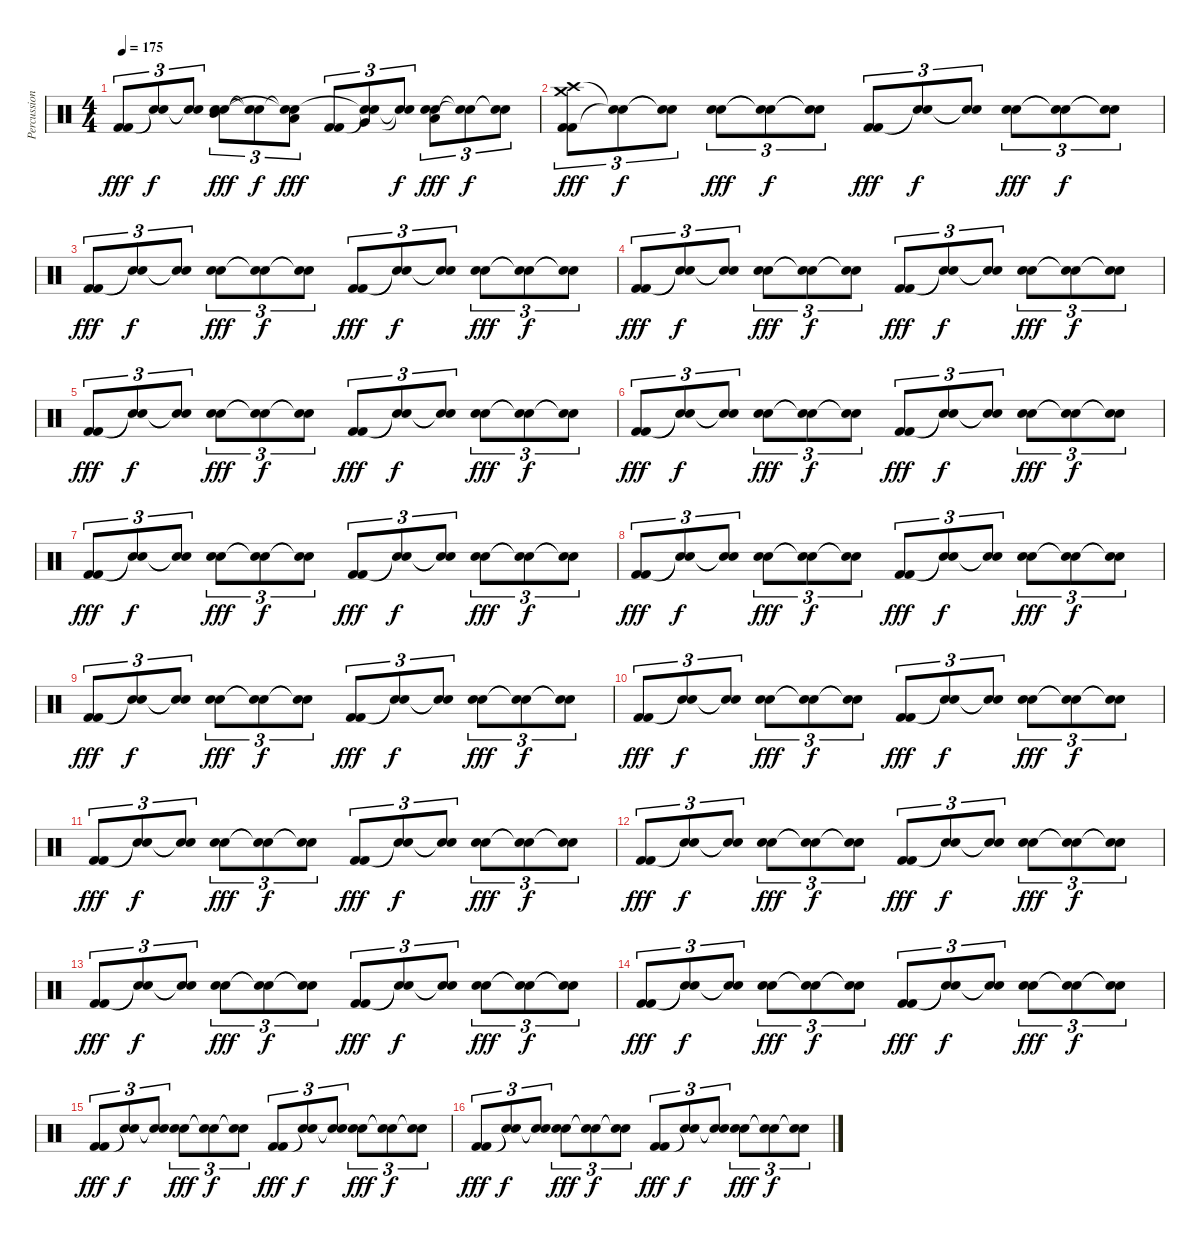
\track ("Percussion" "Percussion") {instrument percussion}
\staff {score}
\articulation defaults
\ts (4 4)
\tempo 175
\clef neutral
\ks c
("Kick (hit) 2" "Kick (hit) 2").8{tu (3 2) dy fff} ("Snare (hit)"{t} "Snare (hit)"{t}).8{tu (3 2) dy f} ("Snare (hit)"{t} "Snare (hit)"{t}).8{tu (3 2)} ("Electric Snare (hit)" "Mid Tom (hit)" "Electric Snare (hit)").8{tu (3 2) dy fff} ("Snare (hit)"{t} "Snare (hit)"{t}).8{tu (3 2) dy f} ("Snare (hit)"{t} "Low Tom (hit)" "Snare (hit)"{t}).8{tu (3 2) dy fff} ("Kick (hit) 2" "Kick (hit) 2").8{tu (3 2)} ("Snare (hit)"{t} "Very Low Tom (hit)" "Snare (hit)"{t}).8{tu (3 2)} ("Snare (hit)"{t} "Snare (hit)"{t}).8{tu (3 2) dy f} ("Electric Snare (hit)" "Low Floor Tom (hit)" "Electric Snare (hit)").8{tu (3 2) dy fff} ("Snare (hit)"{t} "Snare (hit)"{t}).8{tu (3 2) dy f} ("Snare (hit)"{t} "Snare (hit)"{t}).8{tu (3 2)} |
("Kick (hit) 2" "Crash high (hit)" "Kick (hit) 2" "Crash medium (hit)").8{tu (3 2) dy fff} ("Snare (hit)"{t} "Snare (hit)"{t}).8{tu (3 2) dy f} ("Snare (hit)"{t} "Snare (hit)"{t}).8{tu (3 2)} ("Electric Snare (hit)" "Electric Snare (hit)").8{tu (3 2) dy fff} ("Snare (hit)"{t} "Snare (hit)"{t}).8{tu (3 2) dy f} ("Snare (hit)"{t} "Snare (hit)"{t}).8{tu (3 2)} ("Kick (hit) 2" "Kick (hit) 2").8{tu (3 2) dy fff} ("Snare (hit)"{t} "Snare (hit)"{t}).8{tu (3 2) dy f} ("Snare (hit)"{t} "Snare (hit)"{t}).8{tu (3 2)} ("Electric Snare (hit)" "Electric Snare (hit)").8{tu (3 2) dy fff} ("Snare (hit)"{t} "Snare (hit)"{t}).8{tu (3 2) dy f} ("Snare (hit)"{t} "Snare (hit)"{t}).8{tu (3 2)} |
("Kick (hit) 2" "Kick (hit) 2").8{tu (3 2) dy fff} ("Snare (hit)"{t} "Snare (hit)"{t}).8{tu (3 2) dy f} ("Snare (hit)"{t} "Snare (hit)"{t}).8{tu (3 2)} ("Electric Snare (hit)" "Electric Snare (hit)").8{tu (3 2) dy fff} ("Snare (hit)"{t} "Snare (hit)"{t}).8{tu (3 2) dy f} ("Snare (hit)"{t} "Snare (hit)"{t}).8{tu (3 2)} ("Kick (hit) 2" "Kick (hit) 2").8{tu (3 2) dy fff} ("Snare (hit)"{t} "Snare (hit)"{t}).8{tu (3 2) dy f} ("Snare (hit)"{t} "Snare (hit)"{t}).8{tu (3 2)} ("Electric Snare (hit)" "Electric Snare (hit)").8{tu (3 2) dy fff} ("Snare (hit)"{t} "Snare (hit)"{t}).8{tu (3 2) dy f} ("Snare (hit)"{t} "Snare (hit)"{t}).8{tu (3 2)} |
("Kick (hit) 2" "Kick (hit) 2").8{tu (3 2) dy fff} ("Snare (hit)"{t} "Snare (hit)"{t}).8{tu (3 2) dy f} ("Snare (hit)"{t} "Snare (hit)"{t}).8{tu (3 2)} ("Electric Snare (hit)" "Electric Snare (hit)").8{tu (3 2) dy fff} ("Snare (hit)"{t} "Snare (hit)"{t}).8{tu (3 2) dy f} ("Snare (hit)"{t} "Snare (hit)"{t}).8{tu (3 2)} ("Kick (hit) 2" "Kick (hit) 2").8{tu (3 2) dy fff} ("Snare (hit)"{t} "Snare (hit)"{t}).8{tu (3 2) dy f} ("Snare (hit)"{t} "Snare (hit)"{t}).8{tu (3 2)} ("Electric Snare (hit)" "Electric Snare (hit)").8{tu (3 2) dy fff} ("Snare (hit)"{t} "Snare (hit)"{t}).8{tu (3 2) dy f} ("Snare (hit)"{t} "Snare (hit)"{t}).8{tu (3 2)} |
("Kick (hit) 2" "Kick (hit) 2").8{tu (3 2) dy fff} ("Snare (hit)"{t} "Snare (hit)"{t}).8{tu (3 2) dy f} ("Snare (hit)"{t} "Snare (hit)"{t}).8{tu (3 2)} ("Electric Snare (hit)" "Electric Snare (hit)").8{tu (3 2) dy fff} ("Snare (hit)"{t} "Snare (hit)"{t}).8{tu (3 2) dy f} ("Snare (hit)"{t} "Snare (hit)"{t}).8{tu (3 2)} ("Kick (hit) 2" "Kick (hit) 2").8{tu (3 2) dy fff} ("Snare (hit)"{t} "Snare (hit)"{t}).8{tu (3 2) dy f} ("Snare (hit)"{t} "Snare (hit)"{t}).8{tu (3 2)} ("Electric Snare (hit)" "Electric Snare (hit)").8{tu (3 2) dy fff} ("Snare (hit)"{t} "Snare (hit)"{t}).8{tu (3 2) dy f} ("Snare (hit)"{t} "Snare (hit)"{t}).8{tu (3 2)} |
("Kick (hit) 2" "Kick (hit) 2").8{tu (3 2) dy fff} ("Snare (hit)"{t} "Snare (hit)"{t}).8{tu (3 2) dy f} ("Snare (hit)"{t} "Snare (hit)"{t}).8{tu (3 2)} ("Electric Snare (hit)" "Electric Snare (hit)").8{tu (3 2) dy fff} ("Snare (hit)"{t} "Snare (hit)"{t}).8{tu (3 2) dy f} ("Snare (hit)"{t} "Snare (hit)"{t}).8{tu (3 2)} ("Kick (hit) 2" "Kick (hit) 2").8{tu (3 2) dy fff} ("Snare (hit)"{t} "Snare (hit)"{t}).8{tu (3 2) dy f} ("Snare (hit)"{t} "Snare (hit)"{t}).8{tu (3 2)} ("Electric Snare (hit)" "Electric Snare (hit)").8{tu (3 2) dy fff} ("Snare (hit)"{t} "Snare (hit)"{t}).8{tu (3 2) dy f} ("Snare (hit)"{t} "Snare (hit)"{t}).8{tu (3 2)} |
("Kick (hit) 2" "Kick (hit) 2").8{tu (3 2) dy fff} ("Snare (hit)"{t} "Snare (hit)"{t}).8{tu (3 2) dy f} ("Snare (hit)"{t} "Snare (hit)"{t}).8{tu (3 2)} ("Electric Snare (hit)" "Electric Snare (hit)").8{tu (3 2) dy fff} ("Snare (hit)"{t} "Snare (hit)"{t}).8{tu (3 2) dy f} ("Snare (hit)"{t} "Snare (hit)"{t}).8{tu (3 2)} ("Kick (hit) 2" "Kick (hit) 2").8{tu (3 2) dy fff} ("Snare (hit)"{t} "Snare (hit)"{t}).8{tu (3 2) dy f} ("Snare (hit)"{t} "Snare (hit)"{t}).8{tu (3 2)} ("Electric Snare (hit)" "Electric Snare (hit)").8{tu (3 2) dy fff} ("Snare (hit)"{t} "Snare (hit)"{t}).8{tu (3 2) dy f} ("Snare (hit)"{t} "Snare (hit)"{t}).8{tu (3 2)} |
("Kick (hit) 2" "Kick (hit) 2").8{tu (3 2) dy fff} ("Snare (hit)"{t} "Snare (hit)"{t}).8{tu (3 2) dy f} ("Snare (hit)"{t} "Snare (hit)"{t}).8{tu (3 2)} ("Electric Snare (hit)" "Electric Snare (hit)").8{tu (3 2) dy fff} ("Snare (hit)"{t} "Snare (hit)"{t}).8{tu (3 2) dy f} ("Snare (hit)"{t} "Snare (hit)"{t}).8{tu (3 2)} ("Kick (hit) 2" "Kick (hit) 2").8{tu (3 2) dy fff} ("Snare (hit)"{t} "Snare (hit)"{t}).8{tu (3 2) dy f} ("Snare (hit)"{t} "Snare (hit)"{t}).8{tu (3 2)} ("Electric Snare (hit)" "Electric Snare (hit)").8{tu (3 2) dy fff} ("Snare (hit)"{t} "Snare (hit)"{t}).8{tu (3 2) dy f} ("Snare (hit)"{t} "Snare (hit)"{t}).8{tu (3 2)} |
("Kick (hit) 2" "Kick (hit) 2").8{tu (3 2) dy fff} ("Snare (hit)"{t} "Snare (hit)"{t}).8{tu (3 2) dy f} ("Snare (hit)"{t} "Snare (hit)"{t}).8{tu (3 2)} ("Electric Snare (hit)" "Electric Snare (hit)").8{tu (3 2) dy fff} ("Snare (hit)"{t} "Snare (hit)"{t}).8{tu (3 2) dy f} ("Snare (hit)"{t} "Snare (hit)"{t}).8{tu (3 2)} ("Kick (hit) 2" "Kick (hit) 2").8{tu (3 2) dy fff} ("Snare (hit)"{t} "Snare (hit)"{t}).8{tu (3 2) dy f} ("Snare (hit)"{t} "Snare (hit)"{t}).8{tu (3 2)} ("Electric Snare (hit)" "Electric Snare (hit)").8{tu (3 2) dy fff} ("Snare (hit)"{t} "Snare (hit)"{t}).8{tu (3 2) dy f} ("Snare (hit)"{t} "Snare (hit)"{t}).8{tu (3 2)} |
("Kick (hit) 2" "Kick (hit) 2").8{tu (3 2) dy fff} ("Snare (hit)"{t} "Snare (hit)"{t}).8{tu (3 2) dy f} ("Snare (hit)"{t} "Snare (hit)"{t}).8{tu (3 2)} ("Electric Snare (hit)" "Electric Snare (hit)").8{tu (3 2) dy fff} ("Snare (hit)"{t} "Snare (hit)"{t}).8{tu (3 2) dy f} ("Snare (hit)"{t} "Snare (hit)"{t}).8{tu (3 2)} ("Kick (hit) 2" "Kick (hit) 2").8{tu (3 2) dy fff} ("Snare (hit)"{t} "Snare (hit)"{t}).8{tu (3 2) dy f} ("Snare (hit)"{t} "Snare (hit)"{t}).8{tu (3 2)} ("Electric Snare (hit)" "Electric Snare (hit)").8{tu (3 2) dy fff} ("Snare (hit)"{t} "Snare (hit)"{t}).8{tu (3 2) dy f} ("Snare (hit)"{t} "Snare (hit)"{t}).8{tu (3 2)} |
("Kick (hit) 2" "Kick (hit) 2").8{tu (3 2) dy fff} ("Snare (hit)"{t} "Snare (hit)"{t}).8{tu (3 2) dy f} ("Snare (hit)"{t} "Snare (hit)"{t}).8{tu (3 2)} ("Electric Snare (hit)" "Electric Snare (hit)").8{tu (3 2) dy fff} ("Snare (hit)"{t} "Snare (hit)"{t}).8{tu (3 2) dy f} ("Snare (hit)"{t} "Snare (hit)"{t}).8{tu (3 2)} ("Kick (hit) 2" "Kick (hit) 2").8{tu (3 2) dy fff} ("Snare (hit)"{t} "Snare (hit)"{t}).8{tu (3 2) dy f} ("Snare (hit)"{t} "Snare (hit)"{t}).8{tu (3 2)} ("Electric Snare (hit)" "Electric Snare (hit)").8{tu (3 2) dy fff} ("Snare (hit)"{t} "Snare (hit)"{t}).8{tu (3 2) dy f} ("Snare (hit)"{t} "Snare (hit)"{t}).8{tu (3 2)} |
("Kick (hit) 2" "Kick (hit) 2").8{tu (3 2) dy fff} ("Snare (hit)"{t} "Snare (hit)"{t}).8{tu (3 2) dy f} ("Snare (hit)"{t} "Snare (hit)"{t}).8{tu (3 2)} ("Electric Snare (hit)" "Electric Snare (hit)").8{tu (3 2) dy fff} ("Snare (hit)"{t} "Snare (hit)"{t}).8{tu (3 2) dy f} ("Snare (hit)"{t} "Snare (hit)"{t}).8{tu (3 2)} ("Kick (hit) 2" "Kick (hit) 2").8{tu (3 2) dy fff} ("Snare (hit)"{t} "Snare (hit)"{t}).8{tu (3 2) dy f} ("Snare (hit)"{t} "Snare (hit)"{t}).8{tu (3 2)} ("Electric Snare (hit)" "Electric Snare (hit)").8{tu (3 2) dy fff} ("Snare (hit)"{t} "Snare (hit)"{t}).8{tu (3 2) dy f} ("Snare (hit)"{t} "Snare (hit)"{t}).8{tu (3 2)} |
("Kick (hit) 2" "Kick (hit) 2").8{tu (3 2) dy fff} ("Snare (hit)"{t} "Snare (hit)"{t}).8{tu (3 2) dy f} ("Snare (hit)"{t} "Snare (hit)"{t}).8{tu (3 2)} ("Electric Snare (hit)" "Electric Snare (hit)").8{tu (3 2) dy fff} ("Snare (hit)"{t} "Snare (hit)"{t}).8{tu (3 2) dy f} ("Snare (hit)"{t} "Snare (hit)"{t}).8{tu (3 2)} ("Kick (hit) 2" "Kick (hit) 2").8{tu (3 2) dy fff} ("Snare (hit)"{t} "Snare (hit)"{t}).8{tu (3 2) dy f} ("Snare (hit)"{t} "Snare (hit)"{t}).8{tu (3 2)} ("Electric Snare (hit)" "Electric Snare (hit)").8{tu (3 2) dy fff} ("Snare (hit)"{t} "Snare (hit)"{t}).8{tu (3 2) dy f} ("Snare (hit)"{t} "Snare (hit)"{t}).8{tu (3 2)} |
("Kick (hit) 2" "Kick (hit) 2").8{tu (3 2) dy fff} ("Snare (hit)"{t} "Snare (hit)"{t}).8{tu (3 2) dy f} ("Snare (hit)"{t} "Snare (hit)"{t}).8{tu (3 2)} ("Electric Snare (hit)" "Electric Snare (hit)").8{tu (3 2) dy fff} ("Snare (hit)"{t} "Snare (hit)"{t}).8{tu (3 2) dy f} ("Snare (hit)"{t} "Snare (hit)"{t}).8{tu (3 2)} ("Kick (hit) 2" "Kick (hit) 2").8{tu (3 2) dy fff} ("Snare (hit)"{t} "Snare (hit)"{t}).8{tu (3 2) dy f} ("Snare (hit)"{t} "Snare (hit)"{t}).8{tu (3 2)} ("Electric Snare (hit)" "Electric Snare (hit)").8{tu (3 2) dy fff} ("Snare (hit)"{t} "Snare (hit)"{t}).8{tu (3 2) dy f} ("Snare (hit)"{t} "Snare (hit)"{t}).8{tu (3 2)} |
("Kick (hit) 2" "Kick (hit) 2").8{tu (3 2) dy fff} ("Snare (hit)"{t} "Snare (hit)"{t}).8{tu (3 2) dy f} ("Snare (hit)"{t} "Snare (hit)"{t}).8{tu (3 2)} ("Electric Snare (hit)" "Electric Snare (hit)").8{tu (3 2) dy fff} ("Snare (hit)"{t} "Snare (hit)"{t}).8{tu (3 2) dy f} ("Snare (hit)"{t} "Snare (hit)"{t}).8{tu (3 2)} ("Kick (hit) 2" "Kick (hit) 2").8{tu (3 2) dy fff} ("Snare (hit)"{t} "Snare (hit)"{t}).8{tu (3 2) dy f} ("Snare (hit)"{t} "Snare (hit)"{t}).8{tu (3 2)} ("Electric Snare (hit)" "Electric Snare (hit)").8{tu (3 2) dy fff} ("Snare (hit)"{t} "Snare (hit)"{t}).8{tu (3 2) dy f} ("Snare (hit)"{t} "Snare (hit)"{t}).8{tu (3 2)} |
("Kick (hit) 2" "Kick (hit) 2").8{tu (3 2) dy fff} ("Snare (hit)"{t} "Snare (hit)"{t}).8{tu (3 2) dy f} ("Snare (hit)"{t} "Snare (hit)"{t}).8{tu (3 2)} ("Electric Snare (hit)" "Electric Snare (hit)").8{tu (3 2) dy fff} ("Snare (hit)"{t} "Snare (hit)"{t}).8{tu (3 2) dy f} ("Snare (hit)"{t} "Snare (hit)"{t}).8{tu (3 2)} ("Kick (hit) 2" "Kick (hit) 2").8{tu (3 2) dy fff} ("Snare (hit)"{t} "Snare (hit)"{t}).8{tu (3 2) dy f} ("Snare (hit)"{t} "Snare (hit)"{t}).8{tu (3 2)} ("Electric Snare (hit)" "Electric Snare (hit)").8{tu (3 2) dy fff} ("Snare (hit)"{t} "Snare (hit)"{t}).8{tu (3 2) dy f} ("Snare (hit)"{t} "Snare (hit)"{t}).8{tu (3 2)}
